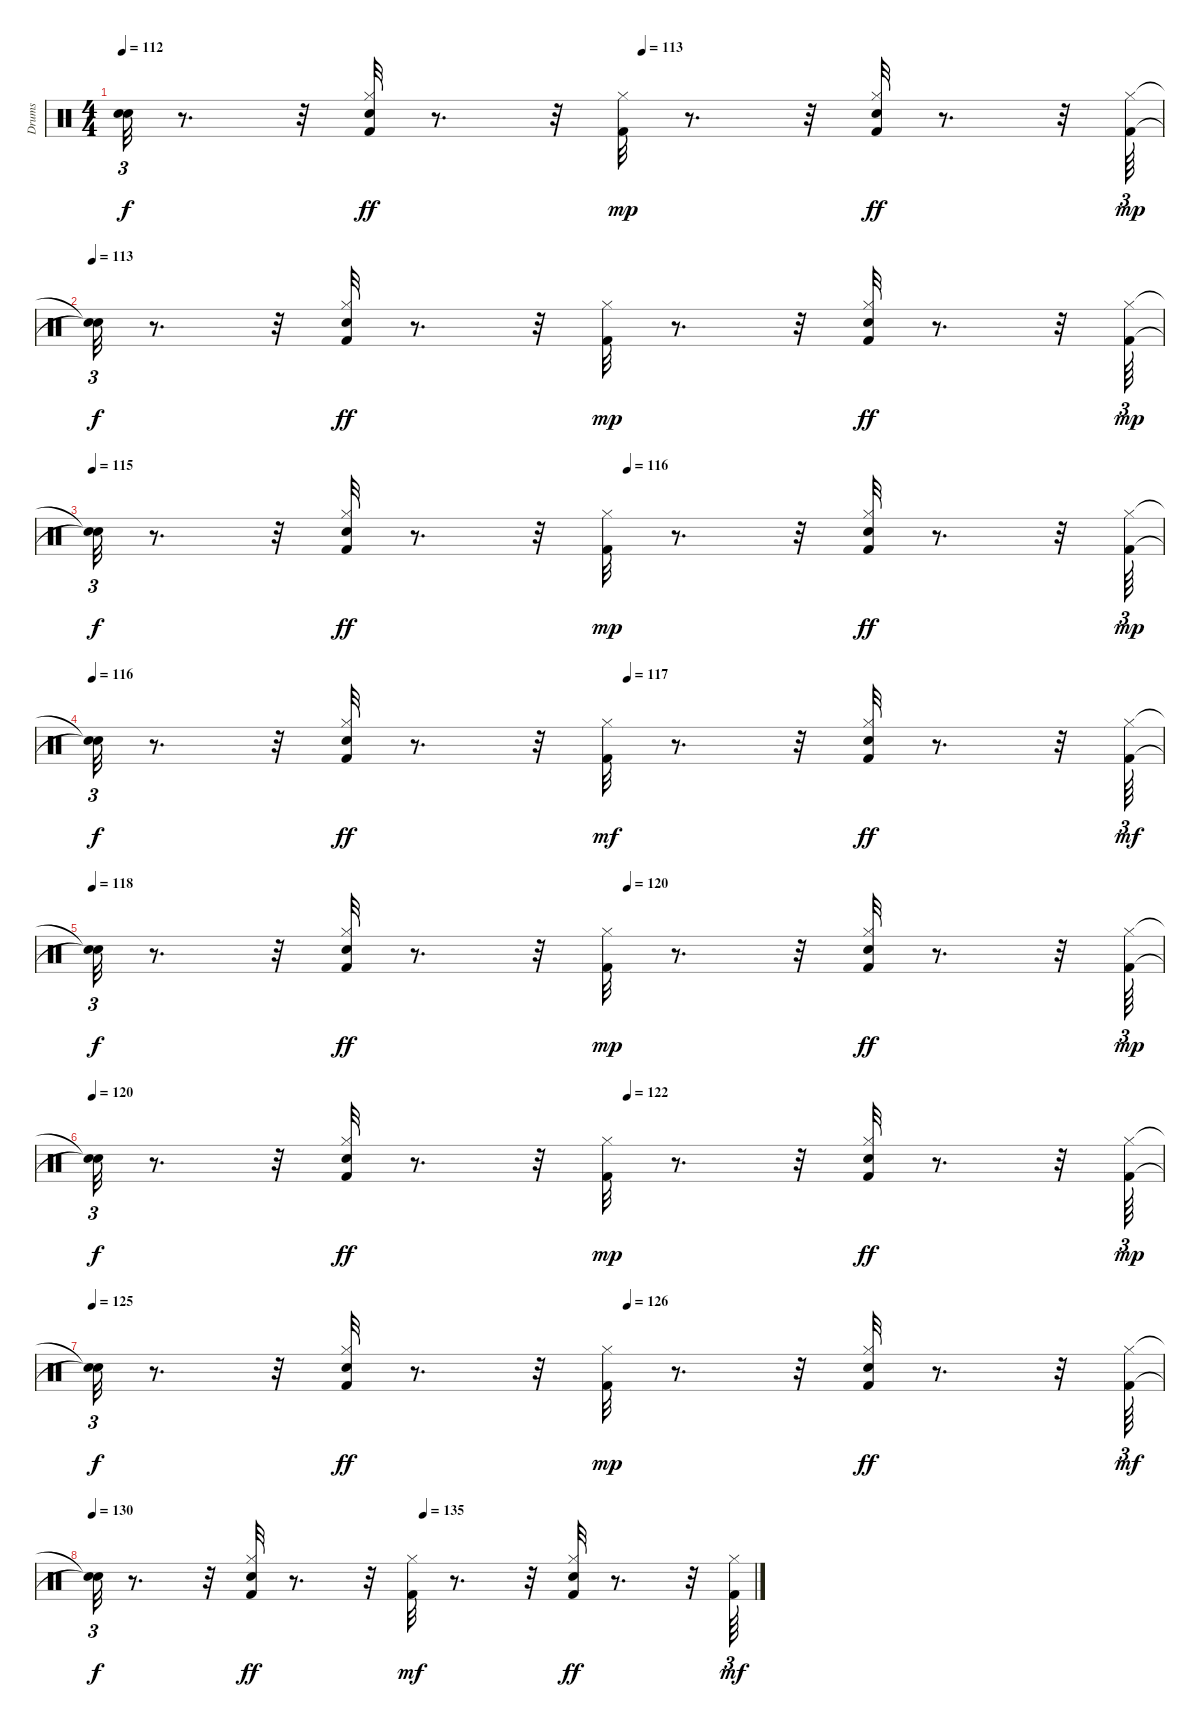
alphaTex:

\track ("Drums   " "Drums   ") {instrument percussion}
\staff {score}
\articulation defaults
\ts (4 4)
\tempo 112
\tempo (113 0.5)
\clef neutral
\ks c
("Snare (hit)"{t} "Snare (hit)"{t}).32{tu (3 2) dy f} r.8{d} r.32 ("Hi-Hat (closed)" "Kick (hit) 2" "Snare (hit) 2").32{dy ff} r.8{d} r.32 ("Kick (hit) 2" "Hi-Hat (closed)").32{dy mp} r.8{d} r.32 ("Hi-Hat (closed)" "Snare (hit) 2" "Kick (hit) 2").32{dy ff} r.8{d} r.32 ("Kick (hit) 2" "Hi-Hat (closed)").64{tu (3 2) dy mp} |
\tempo 113
("Snare (hit)"{t} "Snare (hit)"{t}).32{tu (3 2) dy f} r.8{d} r.32 ("Hi-Hat (closed)" "Kick (hit) 2" "Snare (hit) 2").32{dy ff} r.8{d} r.32 ("Kick (hit) 2" "Hi-Hat (closed)").32{dy mp} r.8{d} r.32 ("Hi-Hat (closed)" "Snare (hit) 2" "Kick (hit) 2").32{dy ff} r.8{d} r.32 ("Kick (hit) 2" "Hi-Hat (closed)").64{tu (3 2) dy mp} |
\tempo 115
\tempo (116 0.5)
("Snare (hit)"{t} "Snare (hit)"{t}).32{tu (3 2) dy f} r.8{d} r.32 ("Hi-Hat (closed)" "Kick (hit) 2" "Snare (hit) 2").32{dy ff} r.8{d} r.32 ("Kick (hit) 2" "Hi-Hat (closed)").32{dy mp} r.8{d} r.32 ("Hi-Hat (closed)" "Snare (hit) 2" "Kick (hit) 2").32{dy ff} r.8{d} r.32 ("Kick (hit) 2" "Hi-Hat (closed)").64{tu (3 2) dy mp} |
\tempo 116
\tempo (117 0.5)
("Snare (hit)"{t} "Snare (hit)"{t}).32{tu (3 2) dy f} r.8{d} r.32 ("Hi-Hat (closed)" "Kick (hit) 2" "Snare (hit) 2").32{dy ff} r.8{d} r.32 ("Kick (hit) 2" "Hi-Hat (closed)").32{dy mf} r.8{d} r.32 ("Hi-Hat (closed)" "Snare (hit) 2" "Kick (hit) 2").32{dy ff} r.8{d} r.32 ("Kick (hit) 2" "Hi-Hat (closed)").64{tu (3 2) dy mf} |
\tempo 118
\tempo (120 0.5)
("Snare (hit)"{t} "Snare (hit)"{t}).32{tu (3 2) dy f} r.8{d} r.32 ("Hi-Hat (closed)" "Kick (hit) 2" "Snare (hit) 2").32{dy ff} r.8{d} r.32 ("Kick (hit) 2" "Hi-Hat (closed)").32{dy mp} r.8{d} r.32 ("Hi-Hat (closed)" "Snare (hit) 2" "Kick (hit) 2").32{dy ff} r.8{d} r.32 ("Kick (hit) 2" "Hi-Hat (closed)").64{tu (3 2) dy mp} |
\tempo 120
\tempo (122 0.5)
("Snare (hit)"{t} "Snare (hit)"{t}).32{tu (3 2) dy f} r.8{d} r.32 ("Hi-Hat (closed)" "Kick (hit) 2" "Snare (hit) 2").32{dy ff} r.8{d} r.32 ("Kick (hit) 2" "Hi-Hat (closed)").32{dy mp} r.8{d} r.32 ("Hi-Hat (closed)" "Snare (hit) 2" "Kick (hit) 2").32{dy ff} r.8{d} r.32 ("Kick (hit) 2" "Hi-Hat (closed)").64{tu (3 2) dy mp} |
\tempo 125
\tempo (126 0.5)
("Snare (hit)"{t} "Snare (hit)"{t}).32{tu (3 2) dy f} r.8{d} r.32 ("Hi-Hat (closed)" "Kick (hit) 2" "Snare (hit) 2").32{dy ff} r.8{d} r.32 ("Kick (hit) 2" "Hi-Hat (closed)").32{dy mp} r.8{d} r.32 ("Hi-Hat (closed)" "Snare (hit) 2" "Kick (hit) 2").32{dy ff} r.8{d} r.32 ("Kick (hit) 2" "Hi-Hat (closed)").64{tu (3 2) dy mf} |
\tempo 130
\tempo (135 0.5)
("Snare (hit)"{t} "Snare (hit)"{t}).32{tu (3 2) dy f} r.8{d} r.32 ("Hi-Hat (closed)" "Kick (hit) 2" "Snare (hit) 2").32{dy ff} r.8{d} r.32 ("Kick (hit) 2" "Hi-Hat (closed)").32{dy mf} r.8{d} r.32 ("Hi-Hat (closed)" "Snare (hit) 2" "Kick (hit) 2").32{dy ff} r.8{d} r.32 ("Kick (hit) 2" "Hi-Hat (closed)").64{tu (3 2) dy mf}
